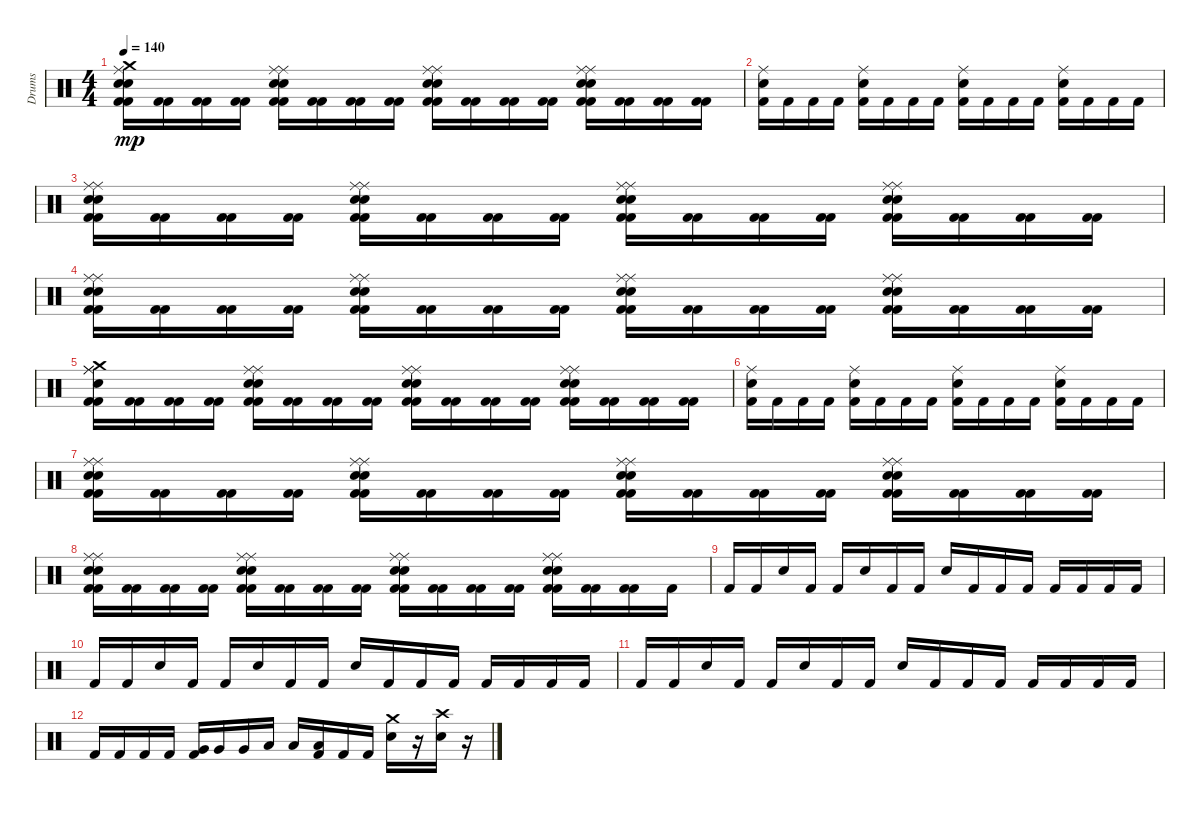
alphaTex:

\track ("Drums" "Drums") {instrument percussion}
\staff {score}
\articulation defaults
\ts (4 4)
\tempo 140
\clef neutral
\ks c
("Kick (hit) 2" "Electric Snare (hit)" "Ride (middle)" "Electric Snare (hit)" "Kick (hit) 2" "Crash medium (hit)").16{dy mp} ("Kick (hit) 2" "Kick (hit) 2").16 ("Kick (hit) 2" "Kick (hit) 2").16 ("Kick (hit) 2" "Kick (hit) 2").16 ("Ride (middle)" "Electric Snare (hit)" "Ride (middle)" "Kick (hit) 2" "Electric Snare (hit)" "Kick (hit) 2").16 ("Kick (hit) 2" "Kick (hit) 2").16 ("Kick (hit) 2" "Kick (hit) 2").16 ("Kick (hit) 2" "Kick (hit) 2").16 ("Electric Snare (hit)" "Ride (middle)" "Kick (hit) 2" "Kick (hit) 2" "Ride (middle)" "Electric Snare (hit)").16 ("Kick (hit) 2" "Kick (hit) 2").16 ("Kick (hit) 2" "Kick (hit) 2").16 ("Kick (hit) 2" "Kick (hit) 2").16 ("Ride (middle)" "Kick (hit) 2" "Electric Snare (hit)" "Kick (hit) 2" "Electric Snare (hit)" "Ride (middle)").16 ("Kick (hit) 2" "Kick (hit) 2").16 ("Kick (hit) 2" "Kick (hit) 2").16 ("Kick (hit) 2" "Kick (hit) 2").16 |
("Ride (middle)" "Kick (hit) 2" "Electric Snare (hit)").16 "Kick (hit) 2".16 "Kick (hit) 2".16 "Kick (hit) 2".16 ("Kick (hit) 2" "Electric Snare (hit)" "Ride (middle)").16 "Kick (hit) 2".16 "Kick (hit) 2".16 "Kick (hit) 2".16 ("Ride (middle)" "Kick (hit) 2" "Electric Snare (hit)").16 "Kick (hit) 2".16 "Kick (hit) 2".16 "Kick (hit) 2".16 ("Electric Snare (hit)" "Kick (hit) 2" "Ride (middle)").16 "Kick (hit) 2".16 "Kick (hit) 2".16 "Kick (hit) 2".16 |
("Ride (middle)" "Kick (hit) 2" "Electric Snare (hit)" "Ride (middle)" "Electric Snare (hit)" "Kick (hit) 2").16 ("Kick (hit) 2" "Kick (hit) 2").16 ("Kick (hit) 2" "Kick (hit) 2").16 ("Kick (hit) 2" "Kick (hit) 2").16 ("Kick (hit) 2" "Electric Snare (hit)" "Electric Snare (hit)" "Ride (middle)" "Kick (hit) 2" "Ride (middle)").16 ("Kick (hit) 2" "Kick (hit) 2").16 ("Kick (hit) 2" "Kick (hit) 2").16 ("Kick (hit) 2" "Kick (hit) 2").16 ("Kick (hit) 2" "Ride (middle)" "Kick (hit) 2" "Electric Snare (hit)" "Electric Snare (hit)" "Ride (middle)").16 ("Kick (hit) 2" "Kick (hit) 2").16 ("Kick (hit) 2" "Kick (hit) 2").16 ("Kick (hit) 2" "Kick (hit) 2").16 ("Ride (middle)" "Kick (hit) 2" "Ride (middle)" "Kick (hit) 2" "Electric Snare (hit)" "Electric Snare (hit)").16 ("Kick (hit) 2" "Kick (hit) 2").16 ("Kick (hit) 2" "Kick (hit) 2").16 ("Kick (hit) 2" "Kick (hit) 2").16 |
("Electric Snare (hit)" "Ride (middle)" "Kick (hit) 2" "Kick (hit) 2" "Electric Snare (hit)" "Ride (middle)").16 ("Kick (hit) 2" "Kick (hit) 2").16 ("Kick (hit) 2" "Kick (hit) 2").16 ("Kick (hit) 2" "Kick (hit) 2").16 ("Ride (middle)" "Kick (hit) 2" "Electric Snare (hit)" "Electric Snare (hit)" "Ride (middle)" "Kick (hit) 2").16 ("Kick (hit) 2" "Kick (hit) 2").16 ("Kick (hit) 2" "Kick (hit) 2").16 ("Kick (hit) 2" "Kick (hit) 2").16 ("Kick (hit) 2" "Ride (middle)" "Kick (hit) 2" "Electric Snare (hit)" "Electric Snare (hit)" "Ride (middle)").16 ("Kick (hit) 2" "Kick (hit) 2").16 ("Kick (hit) 2" "Kick (hit) 2").16 ("Kick (hit) 2" "Kick (hit) 2").16 ("Electric Snare (hit)" "Electric Snare (hit)" "Ride (middle)" "Kick (hit) 2" "Ride (middle)" "Kick (hit) 2").16 ("Kick (hit) 2" "Kick (hit) 2").16 ("Kick (hit) 2" "Kick (hit) 2").16 ("Kick (hit) 2" "Kick (hit) 2").16 |
("Kick (hit) 2" "Ride (middle)" "Electric Snare (hit)" "Crash medium (hit)" "Ride (middle)" "Kick (hit) 2").16 ("Kick (hit) 2" "Kick (hit) 2").16 ("Kick (hit) 2" "Kick (hit) 2").16 ("Kick (hit) 2" "Kick (hit) 2").16 ("Ride (middle)" "Kick (hit) 2" "Kick (hit) 2" "Electric Snare (hit)" "Electric Snare (hit)" "Ride (middle)").16 ("Kick (hit) 2" "Kick (hit) 2").16 ("Kick (hit) 2" "Kick (hit) 2").16 ("Kick (hit) 2" "Kick (hit) 2").16 ("Kick (hit) 2" "Ride (middle)" "Ride (middle)" "Electric Snare (hit)" "Kick (hit) 2" "Electric Snare (hit)").16 ("Kick (hit) 2" "Kick (hit) 2").16 ("Kick (hit) 2" "Kick (hit) 2").16 ("Kick (hit) 2" "Kick (hit) 2").16 ("Kick (hit) 2" "Electric Snare (hit)" "Kick (hit) 2" "Ride (middle)" "Ride (middle)" "Electric Snare (hit)").16 ("Kick (hit) 2" "Kick (hit) 2").16 ("Kick (hit) 2" "Kick (hit) 2").16 ("Kick (hit) 2" "Kick (hit) 2").16 |
("Electric Snare (hit)" "Kick (hit) 2" "Ride (middle)").16 "Kick (hit) 2".16 "Kick (hit) 2".16 "Kick (hit) 2".16 ("Electric Snare (hit)" "Kick (hit) 2" "Ride (middle)").16 "Kick (hit) 2".16 "Kick (hit) 2".16 "Kick (hit) 2".16 ("Electric Snare (hit)" "Kick (hit) 2" "Ride (middle)").16 "Kick (hit) 2".16 "Kick (hit) 2".16 "Kick (hit) 2".16 ("Kick (hit) 2" "Electric Snare (hit)" "Ride (middle)").16 "Kick (hit) 2".16 "Kick (hit) 2".16 "Kick (hit) 2".16 |
("Electric Snare (hit)" "Electric Snare (hit)" "Ride (middle)" "Kick (hit) 2" "Ride (middle)" "Kick (hit) 2").16 ("Kick (hit) 2" "Kick (hit) 2").16 ("Kick (hit) 2" "Kick (hit) 2").16 ("Kick (hit) 2" "Kick (hit) 2").16 ("Electric Snare (hit)" "Ride (middle)" "Electric Snare (hit)" "Ride (middle)" "Kick (hit) 2" "Kick (hit) 2").16 ("Kick (hit) 2" "Kick (hit) 2").16 ("Kick (hit) 2" "Kick (hit) 2").16 ("Kick (hit) 2" "Kick (hit) 2").16 ("Ride (middle)" "Electric Snare (hit)" "Kick (hit) 2" "Electric Snare (hit)" "Kick (hit) 2" "Ride (middle)").16 ("Kick (hit) 2" "Kick (hit) 2").16 ("Kick (hit) 2" "Kick (hit) 2").16 ("Kick (hit) 2" "Kick (hit) 2").16 ("Kick (hit) 2" "Electric Snare (hit)" "Ride (middle)" "Kick (hit) 2" "Ride (middle)" "Electric Snare (hit)").16 ("Kick (hit) 2" "Kick (hit) 2").16 ("Kick (hit) 2" "Kick (hit) 2").16 ("Kick (hit) 2" "Kick (hit) 2").16 |
("Electric Snare (hit)" "Ride (middle)" "Ride (middle)" "Electric Snare (hit)" "Kick (hit) 2" "Kick (hit) 2").16 ("Kick (hit) 2" "Kick (hit) 2").16 ("Kick (hit) 2" "Kick (hit) 2").16 ("Kick (hit) 2" "Kick (hit) 2").16 ("Electric Snare (hit)" "Kick (hit) 2" "Electric Snare (hit)" "Kick (hit) 2" "Ride (middle)" "Ride (middle)").16 ("Kick (hit) 2" "Kick (hit) 2").16 ("Kick (hit) 2" "Kick (hit) 2").16 ("Kick (hit) 2" "Kick (hit) 2").16 ("Electric Snare (hit)" "Electric Snare (hit)" "Kick (hit) 2" "Kick (hit) 2" "Ride (middle)" "Ride (middle)").16 ("Kick (hit) 2" "Kick (hit) 2").16 ("Kick (hit) 2" "Kick (hit) 2").16 ("Kick (hit) 2" "Kick (hit) 2").16 ("Electric Snare (hit)" "Ride (middle)" "Kick (hit) 2" "Ride (middle)" "Electric Snare (hit)" "Kick (hit) 2").16 ("Kick (hit) 2" "Kick (hit) 2").16 ("Kick (hit) 2" "Kick (hit) 2").16 "Kick (hit) 2".16 |
"Kick (hit) 2".16 "Kick (hit) 2".16 "Electric Snare (hit)".16 "Kick (hit) 2".16 "Kick (hit) 2".16 "Electric Snare (hit)".16 "Kick (hit) 2".16 "Kick (hit) 2".16 "Electric Snare (hit)".16 "Kick (hit) 2".16 "Kick (hit) 2".16 "Kick (hit) 2".16 "Kick (hit) 2".16 "Kick (hit) 2".16 "Kick (hit) 2".16 "Kick (hit) 2".16 |
"Kick (hit) 2".16 "Kick (hit) 2".16 "Electric Snare (hit)".16 "Kick (hit) 2".16 "Kick (hit) 2".16 "Electric Snare (hit)".16 "Kick (hit) 2".16 "Kick (hit) 2".16 "Electric Snare (hit)".16 "Kick (hit) 2".16 "Kick (hit) 2".16 "Kick (hit) 2".16 "Kick (hit) 2".16 "Kick (hit) 2".16 "Kick (hit) 2".16 "Kick (hit) 2".16 |
"Kick (hit) 2".16 "Kick (hit) 2".16 "Electric Snare (hit)".16 "Kick (hit) 2".16 "Kick (hit) 2".16 "Electric Snare (hit)".16 "Kick (hit) 2".16 "Kick (hit) 2".16 "Electric Snare (hit)".16 "Kick (hit) 2".16 "Kick (hit) 2".16 "Kick (hit) 2".16 "Kick (hit) 2".16 "Kick (hit) 2".16 "Kick (hit) 2".16 "Kick (hit) 2".16 |
"Kick (hit) 2".16 "Kick (hit) 2".16 "Kick (hit) 2".16 "Kick (hit) 2".16 ("Very Low Tom (hit)" "Kick (hit) 2").16 "Very Low Tom (hit)".16 "Very Low Tom (hit)".16 "Low Floor Tom (hit)".16 "Low Floor Tom (hit)".16 ("Low Floor Tom (hit)" "Kick (hit) 2").16 "Kick (hit) 2".16 "Kick (hit) 2".16 ("Crash medium (hit)" "Electric Snare (hit)").16 r.16 ("Electric Snare (hit)" "Crash high (hit)").16 r.16
